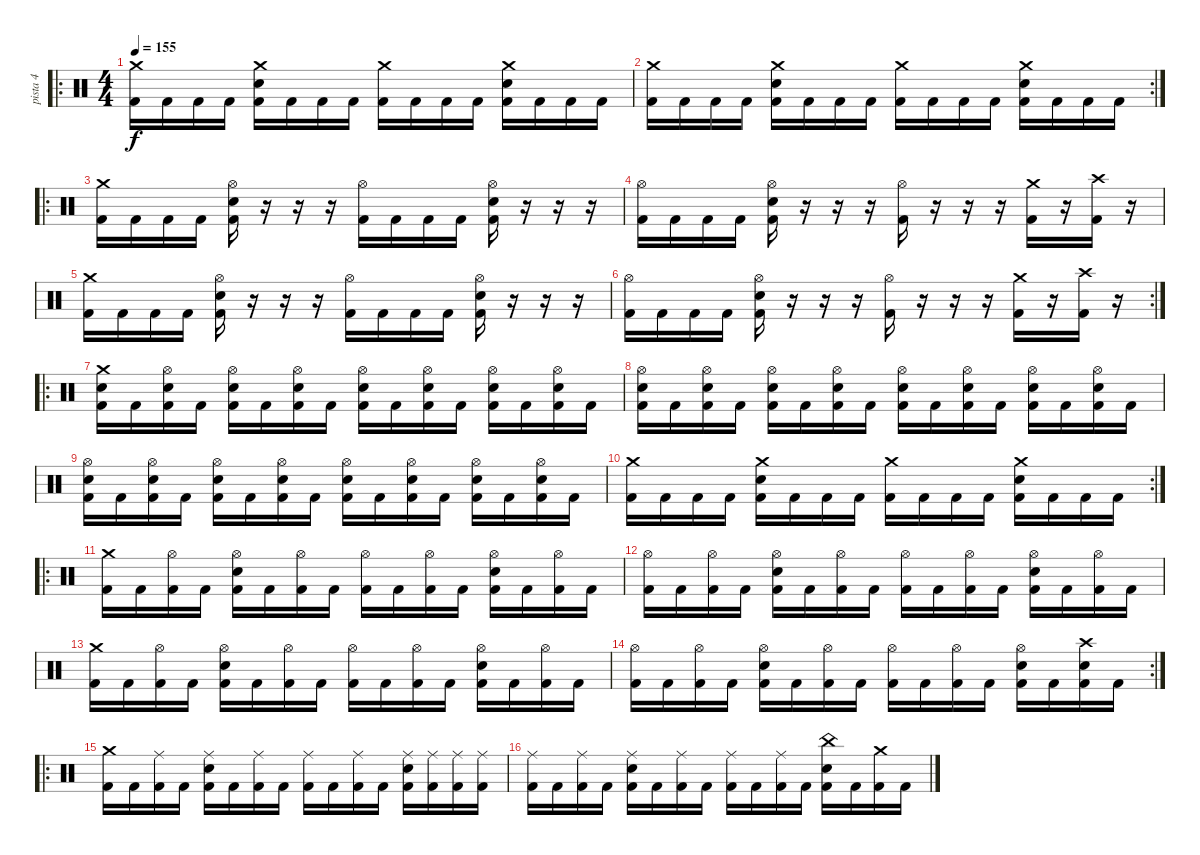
\track ("pista 4" "pista 4") {instrument percussion}
\staff {score}
\articulation defaults
\ro
\ts (4 4)
\tempo 155
\clef neutral
\ks c
("Crash medium (hit)" "Kick (hit) 2").16{dy f} "Kick (hit) 2".16 "Kick (hit) 2".16 "Kick (hit) 2".16 ("Crash medium (hit)" "Snare (hit) 2" "Kick (hit) 2").16 "Kick (hit) 2".16 "Kick (hit) 2".16 "Kick (hit) 2".16 ("Crash medium (hit)" "Kick (hit) 2").16 "Kick (hit) 2".16 "Kick (hit) 2".16 "Kick (hit) 2".16 ("Crash medium (hit)" "Snare (hit) 2" "Kick (hit) 2").16 "Kick (hit) 2".16 "Kick (hit) 2".16 "Kick (hit) 2".16 |
\rc 2
("Crash medium (hit)" "Kick (hit) 2").16 "Kick (hit) 2".16 "Kick (hit) 2".16 "Kick (hit) 2".16 ("Crash medium (hit)" "Snare (hit) 2" "Kick (hit) 2").16 "Kick (hit) 2".16 "Kick (hit) 2".16 "Kick (hit) 2".16 ("Crash medium (hit)" "Kick (hit) 2").16 "Kick (hit) 2".16 "Kick (hit) 2".16 "Kick (hit) 2".16 ("Crash medium (hit)" "Snare (hit) 2" "Kick (hit) 2").16 "Kick (hit) 2".16 "Kick (hit) 2".16 "Kick (hit) 2".16 |
\ro
("Crash medium (hit)" "Kick (hit) 2").16 "Kick (hit) 2".16 "Kick (hit) 2".16 "Kick (hit) 2".16 ("Hi-Hat (open)" "Snare (hit) 2" "Kick (hit) 2").16 r.16 r.16 r.16 ("Hi-Hat (open)" "Kick (hit) 2").16 "Kick (hit) 2".16 "Kick (hit) 2".16 "Kick (hit) 2".16 ("Hi-Hat (open)" "Snare (hit) 2" "Kick (hit) 2").16 r.16 r.16 r.16 |
("Hi-Hat (open)" "Kick (hit) 2").16 "Kick (hit) 2".16 "Kick (hit) 2".16 "Kick (hit) 2".16 ("Hi-Hat (open)" "Snare (hit) 2" "Kick (hit) 2").16 r.16 r.16 r.16 ("Hi-Hat (open)" "Kick (hit) 2").16 r.16 r.16 r.16 ("Crash medium (hit)" "Kick (hit) 2").16 r.16 ("Crash high (hit)" "Kick (hit) 2").16 r.16 |
("Crash medium (hit)" "Kick (hit) 2").16 "Kick (hit) 2".16 "Kick (hit) 2".16 "Kick (hit) 2".16 ("Hi-Hat (open)" "Snare (hit) 2" "Kick (hit) 2").16 r.16 r.16 r.16 ("Hi-Hat (open)" "Kick (hit) 2").16 "Kick (hit) 2".16 "Kick (hit) 2".16 "Kick (hit) 2".16 ("Hi-Hat (open)" "Snare (hit) 2" "Kick (hit) 2").16 r.16 r.16 r.16 |
\rc 2
("Hi-Hat (open)" "Kick (hit) 2").16 "Kick (hit) 2".16 "Kick (hit) 2".16 "Kick (hit) 2".16 ("Hi-Hat (open)" "Snare (hit) 2" "Kick (hit) 2").16 r.16 r.16 r.16 ("Hi-Hat (open)" "Kick (hit) 2").16 r.16 r.16 r.16 ("Crash medium (hit)" "Kick (hit) 2").16 r.16 ("Crash high (hit)" "Kick (hit) 2").16 r.16 |
\ro
("Crash medium (hit)" "Snare (hit) 2" "Kick (hit) 2").16 "Kick (hit) 2".16 ("Hi-Hat (open)" "Snare (hit) 2" "Kick (hit) 2").16 "Kick (hit) 2".16 ("Hi-Hat (open)" "Snare (hit) 2" "Kick (hit) 2").16 "Kick (hit) 2".16 ("Hi-Hat (open)" "Snare (hit) 2" "Kick (hit) 2").16 "Kick (hit) 2".16 ("Hi-Hat (open)" "Snare (hit) 2" "Kick (hit) 2").16 "Kick (hit) 2".16 ("Hi-Hat (open)" "Snare (hit) 2" "Kick (hit) 2").16 "Kick (hit) 2".16 ("Hi-Hat (open)" "Snare (hit) 2" "Kick (hit) 2").16 "Kick (hit) 2".16 ("Hi-Hat (open)" "Snare (hit) 2" "Kick (hit) 2").16 "Kick (hit) 2".16 |
("Hi-Hat (open)" "Snare (hit) 2" "Kick (hit) 2").16 "Kick (hit) 2".16 ("Hi-Hat (open)" "Snare (hit) 2" "Kick (hit) 2").16 "Kick (hit) 2".16 ("Hi-Hat (open)" "Snare (hit) 2" "Kick (hit) 2").16 "Kick (hit) 2".16 ("Hi-Hat (open)" "Snare (hit) 2" "Kick (hit) 2").16 "Kick (hit) 2".16 ("Hi-Hat (open)" "Snare (hit) 2" "Kick (hit) 2").16 "Kick (hit) 2".16 ("Hi-Hat (open)" "Snare (hit) 2" "Kick (hit) 2").16 "Kick (hit) 2".16 ("Hi-Hat (open)" "Snare (hit) 2" "Kick (hit) 2").16 "Kick (hit) 2".16 ("Hi-Hat (open)" "Snare (hit) 2" "Kick (hit) 2").16 "Kick (hit) 2".16 |
("Hi-Hat (open)" "Snare (hit) 2" "Kick (hit) 2").16 "Kick (hit) 2".16 ("Hi-Hat (open)" "Snare (hit) 2" "Kick (hit) 2").16 "Kick (hit) 2".16 ("Hi-Hat (open)" "Snare (hit) 2" "Kick (hit) 2").16 "Kick (hit) 2".16 ("Hi-Hat (open)" "Snare (hit) 2" "Kick (hit) 2").16 "Kick (hit) 2".16 ("Hi-Hat (open)" "Snare (hit) 2" "Kick (hit) 2").16 "Kick (hit) 2".16 ("Hi-Hat (open)" "Snare (hit) 2" "Kick (hit) 2").16 "Kick (hit) 2".16 ("Hi-Hat (open)" "Snare (hit) 2" "Kick (hit) 2").16 "Kick (hit) 2".16 ("Hi-Hat (open)" "Snare (hit) 2" "Kick (hit) 2").16 "Kick (hit) 2".16 |
\rc 2
("Crash medium (hit)" "Kick (hit) 2").16 "Kick (hit) 2".16 "Kick (hit) 2".16 "Kick (hit) 2".16 ("Crash medium (hit)" "Snare (hit) 2" "Kick (hit) 2").16 "Kick (hit) 2".16 "Kick (hit) 2".16 "Kick (hit) 2".16 ("Crash medium (hit)" "Kick (hit) 2").16 "Kick (hit) 2".16 "Kick (hit) 2".16 "Kick (hit) 2".16 ("Crash medium (hit)" "Snare (hit) 2" "Kick (hit) 2").16 "Kick (hit) 2".16 "Kick (hit) 2".16 "Kick (hit) 2".16 |
\ro
("Crash medium (hit)" "Kick (hit) 2").16 "Kick (hit) 2".16 ("Hi-Hat (open)" "Kick (hit) 2").16 "Kick (hit) 2".16 ("Hi-Hat (open)" "Snare (hit) 2" "Kick (hit) 2").16 "Kick (hit) 2".16 ("Hi-Hat (open)" "Kick (hit) 2").16 "Kick (hit) 2".16 ("Hi-Hat (open)" "Kick (hit) 2").16 "Kick (hit) 2".16 ("Hi-Hat (open)" "Kick (hit) 2").16 "Kick (hit) 2".16 ("Hi-Hat (open)" "Snare (hit) 2" "Kick (hit) 2").16 "Kick (hit) 2".16 ("Hi-Hat (open)" "Kick (hit) 2").16 "Kick (hit) 2".16 |
("Hi-Hat (open)" "Kick (hit) 2").16 "Kick (hit) 2".16 ("Hi-Hat (open)" "Kick (hit) 2").16 "Kick (hit) 2".16 ("Hi-Hat (open)" "Snare (hit) 2" "Kick (hit) 2").16 "Kick (hit) 2".16 ("Hi-Hat (open)" "Kick (hit) 2").16 "Kick (hit) 2".16 ("Hi-Hat (open)" "Kick (hit) 2").16 "Kick (hit) 2".16 ("Hi-Hat (open)" "Kick (hit) 2").16 "Kick (hit) 2".16 ("Hi-Hat (open)" "Snare (hit) 2" "Kick (hit) 2").16 "Kick (hit) 2".16 ("Hi-Hat (open)" "Kick (hit) 2").16 "Kick (hit) 2".16 |
("Crash medium (hit)" "Kick (hit) 2").16 "Kick (hit) 2".16 ("Hi-Hat (open)" "Kick (hit) 2").16 "Kick (hit) 2".16 ("Hi-Hat (open)" "Snare (hit) 2" "Kick (hit) 2").16 "Kick (hit) 2".16 ("Hi-Hat (open)" "Kick (hit) 2").16 "Kick (hit) 2".16 ("Hi-Hat (open)" "Kick (hit) 2").16 "Kick (hit) 2".16 ("Hi-Hat (open)" "Kick (hit) 2").16 "Kick (hit) 2".16 ("Hi-Hat (open)" "Snare (hit) 2" "Kick (hit) 2").16 "Kick (hit) 2".16 ("Hi-Hat (open)" "Kick (hit) 2").16 "Kick (hit) 2".16 |
\rc 2
("Hi-Hat (open)" "Kick (hit) 2").16 "Kick (hit) 2".16 ("Hi-Hat (open)" "Kick (hit) 2").16 "Kick (hit) 2".16 ("Hi-Hat (open)" "Snare (hit) 2" "Kick (hit) 2").16 "Kick (hit) 2".16 ("Hi-Hat (open)" "Kick (hit) 2").16 "Kick (hit) 2".16 ("Hi-Hat (open)" "Kick (hit) 2").16 "Kick (hit) 2".16 ("Hi-Hat (open)" "Kick (hit) 2").16 "Kick (hit) 2".16 ("Hi-Hat (open)" "Snare (hit) 2" "Kick (hit) 2").16 "Kick (hit) 2".16 ("Crash high (hit)" "Snare (hit) 2" "Kick (hit) 2").16 "Kick (hit) 2".16 |
\ro
("Crash medium (hit)" "Kick (hit) 2").16 "Kick (hit) 2".16 ("Ride (middle)" "Kick (hit) 2").16 "Kick (hit) 2".16 ("Ride (middle)" "Snare (hit) 2" "Kick (hit) 2").16 "Kick (hit) 2".16 ("Ride (middle)" "Kick (hit) 2").16 "Kick (hit) 2".16 ("Ride (middle)" "Kick (hit) 2").16 "Kick (hit) 2".16 ("Ride (middle)" "Kick (hit) 2").16 "Kick (hit) 2".16 ("Ride (middle)" "Snare (hit) 2" "Kick (hit) 2").16 ("Ride (middle)" "Kick (hit) 2").16 ("Ride (middle)" "Kick (hit) 2").16 ("Ride (middle)" "Kick (hit) 2").16 |
("Ride (middle)" "Kick (hit) 2").16 "Kick (hit) 2".16 ("Ride (middle)" "Kick (hit) 2").16 "Kick (hit) 2".16 ("Ride (middle)" "Snare (hit) 2" "Kick (hit) 2").16 "Kick (hit) 2".16 ("Ride (middle)" "Kick (hit) 2").16 "Kick (hit) 2".16 ("Ride (middle)" "Kick (hit) 2").16 "Kick (hit) 2".16 ("Ride (middle)" "Kick (hit) 2").16 "Kick (hit) 2".16 ("China (hit)" "Snare (hit) 2" "Kick (hit) 2").16 "Kick (hit) 2".16 ("Crash medium (hit)" "Kick (hit) 2").16 "Kick (hit) 2".16
